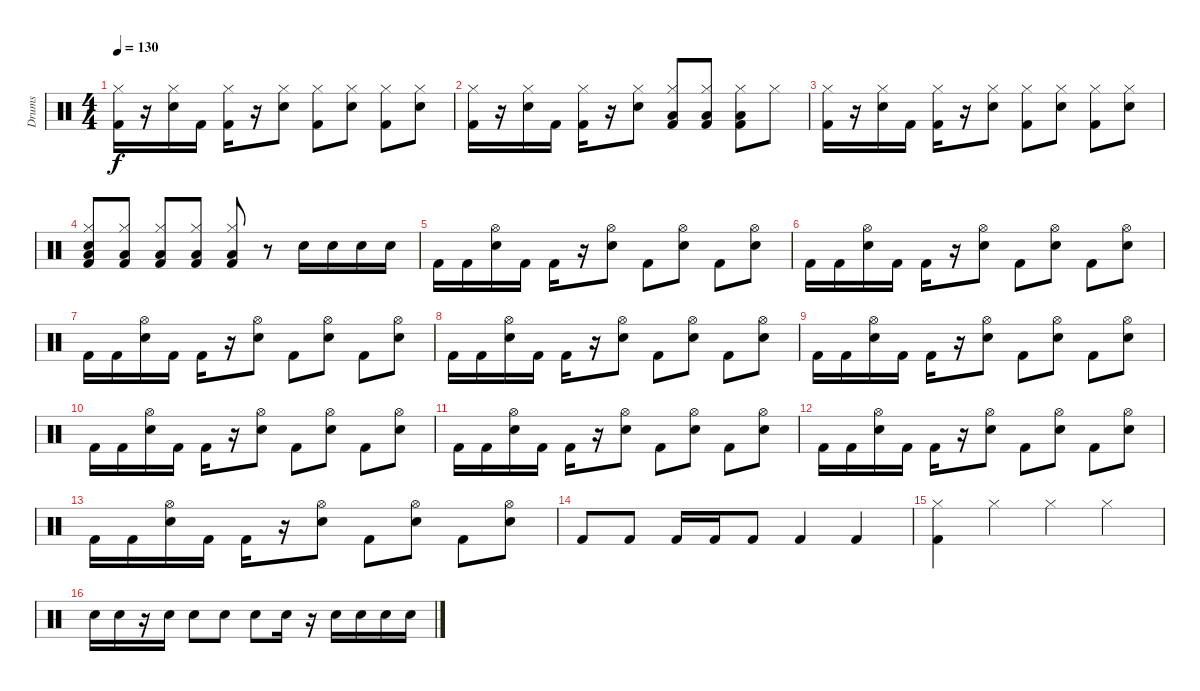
\track ("Drums" "Drums") {instrument percussion}
\staff {score}
\articulation defaults
\ts (4 4)
\tempo 130
\clef neutral
\ks c
("Kick (hit) 2" "Hi-Hat (closed)").16{dy f} r.16 ("Snare (hit) 2" "Hi-Hat (closed)").16 "Kick (hit) 2".16 ("Kick (hit) 2" "Hi-Hat (closed)").16 r.16 ("Snare (hit) 2" "Hi-Hat (closed)").8 ("Kick (hit) 2" "Hi-Hat (closed)").8 ("Snare (hit) 2" "Hi-Hat (closed)").8 ("Kick (hit) 2" "Hi-Hat (closed)").8 ("Snare (hit) 2" "Hi-Hat (closed)").8 |
("Kick (hit) 2" "Hi-Hat (closed)").16 r.16 ("Snare (hit) 2" "Hi-Hat (closed)").16 "Kick (hit) 2".16 ("Kick (hit) 2" "Hi-Hat (closed)").16 r.16 ("Snare (hit) 2" "Hi-Hat (closed)").8 ("Kick (hit) 2" "Low Floor Tom (hit)" "Hi-Hat (closed)").8 ("Kick (hit) 2" "Low Floor Tom (hit)" "Hi-Hat (closed)").8 ("Kick (hit) 2" "Low Floor Tom (hit)" "Hi-Hat (closed)").8 "Hi-Hat (closed)".8 |
("Kick (hit) 2" "Hi-Hat (closed)").16 r.16 ("Snare (hit) 2" "Hi-Hat (closed)").16 "Kick (hit) 2".16 ("Kick (hit) 2" "Hi-Hat (closed)").16 r.16 ("Snare (hit) 2" "Hi-Hat (closed)").8 ("Kick (hit) 2" "Hi-Hat (closed)").8 ("Snare (hit) 2" "Hi-Hat (closed)").8 ("Kick (hit) 2" "Hi-Hat (closed)").8 ("Snare (hit) 2" "Hi-Hat (closed)").8 |
("Kick (hit) 2" "Snare (hit) 2" "Low Floor Tom (hit)" "Hi-Hat (closed)").8 ("Kick (hit) 2" "Low Floor Tom (hit)" "Hi-Hat (closed)").8 ("Kick (hit) 2" "Low Floor Tom (hit)" "Hi-Hat (closed)").8 ("Kick (hit) 2" "Low Floor Tom (hit)" "Hi-Hat (closed)").8 ("Kick (hit) 2" "Low Floor Tom (hit)" "Hi-Hat (closed)").8 r.8 "Snare (hit) 2".16 "Snare (hit) 2".16 "Snare (hit) 2".16 "Snare (hit) 2".16 |
"Kick (hit) 2".16 "Kick (hit) 2".16 ("Snare (hit) 2" "Hi-Hat (open)").16 "Kick (hit) 2".16 "Kick (hit) 2".16 r.16 ("Snare (hit) 2" "Hi-Hat (open)").8 "Kick (hit) 2".8 ("Snare (hit) 2" "Hi-Hat (open)").8 "Kick (hit) 2".8 ("Snare (hit) 2" "Hi-Hat (open)").8 |
"Kick (hit) 2".16 "Kick (hit) 2".16 ("Snare (hit) 2" "Hi-Hat (open)").16 "Kick (hit) 2".16 "Kick (hit) 2".16 r.16 ("Snare (hit) 2" "Hi-Hat (open)").8 "Kick (hit) 2".8 ("Snare (hit) 2" "Hi-Hat (open)").8 "Kick (hit) 2".8 ("Snare (hit) 2" "Hi-Hat (open)").8 |
"Kick (hit) 2".16 "Kick (hit) 2".16 ("Snare (hit) 2" "Hi-Hat (open)").16 "Kick (hit) 2".16 "Kick (hit) 2".16 r.16 ("Snare (hit) 2" "Hi-Hat (open)").8 "Kick (hit) 2".8 ("Snare (hit) 2" "Hi-Hat (open)").8 "Kick (hit) 2".8 ("Snare (hit) 2" "Hi-Hat (open)").8 |
"Kick (hit) 2".16 "Kick (hit) 2".16 ("Snare (hit) 2" "Hi-Hat (open)").16 "Kick (hit) 2".16 "Kick (hit) 2".16 r.16 ("Snare (hit) 2" "Hi-Hat (open)").8 "Kick (hit) 2".8 ("Snare (hit) 2" "Hi-Hat (open)").8 "Kick (hit) 2".8 ("Snare (hit) 2" "Hi-Hat (open)").8 |
"Kick (hit) 2".16 "Kick (hit) 2".16 ("Snare (hit) 2" "Hi-Hat (open)").16 "Kick (hit) 2".16 "Kick (hit) 2".16 r.16 ("Snare (hit) 2" "Hi-Hat (open)").8 "Kick (hit) 2".8 ("Snare (hit) 2" "Hi-Hat (open)").8 "Kick (hit) 2".8 ("Snare (hit) 2" "Hi-Hat (open)").8 |
"Kick (hit) 2".16 "Kick (hit) 2".16 ("Snare (hit) 2" "Hi-Hat (open)").16 "Kick (hit) 2".16 "Kick (hit) 2".16 r.16 ("Snare (hit) 2" "Hi-Hat (open)").8 "Kick (hit) 2".8 ("Snare (hit) 2" "Hi-Hat (open)").8 "Kick (hit) 2".8 ("Snare (hit) 2" "Hi-Hat (open)").8 |
"Kick (hit) 2".16 "Kick (hit) 2".16 ("Snare (hit) 2" "Hi-Hat (open)").16 "Kick (hit) 2".16 "Kick (hit) 2".16 r.16 ("Snare (hit) 2" "Hi-Hat (open)").8 "Kick (hit) 2".8 ("Snare (hit) 2" "Hi-Hat (open)").8 "Kick (hit) 2".8 ("Snare (hit) 2" "Hi-Hat (open)").8 |
"Kick (hit) 2".16 "Kick (hit) 2".16 ("Snare (hit) 2" "Hi-Hat (open)").16 "Kick (hit) 2".16 "Kick (hit) 2".16 r.16 ("Snare (hit) 2" "Hi-Hat (open)").8 "Kick (hit) 2".8 ("Snare (hit) 2" "Hi-Hat (open)").8 "Kick (hit) 2".8 ("Snare (hit) 2" "Hi-Hat (open)").8 |
"Kick (hit) 2".16 "Kick (hit) 2".16 ("Snare (hit) 2" "Hi-Hat (open)").16 "Kick (hit) 2".16 "Kick (hit) 2".16 r.16 ("Snare (hit) 2" "Hi-Hat (open)").8 "Kick (hit) 2".8 ("Snare (hit) 2" "Hi-Hat (open)").8 "Kick (hit) 2".8 ("Snare (hit) 2" "Hi-Hat (open)").8 |
"Kick (hit) 2".8 "Kick (hit) 2".8 "Kick (hit) 2".16 "Kick (hit) 2".16 "Kick (hit) 2".8 "Kick (hit) 2".4 "Kick (hit) 2".4 |
("Kick (hit) 2" "Hi-Hat (closed)").4 "Hi-Hat (closed)".4 "Hi-Hat (closed)".4 "Hi-Hat (closed)".4 |
"Snare (hit) 2".16 "Snare (hit) 2".16 r.16 "Snare (hit) 2".16 "Snare (hit) 2".8 "Snare (hit) 2".8 "Snare (hit) 2".8 "Snare (hit) 2".16 r.16 "Snare (hit) 2".16 "Snare (hit) 2".16 "Snare (hit) 2".16 "Snare (hit) 2".16
